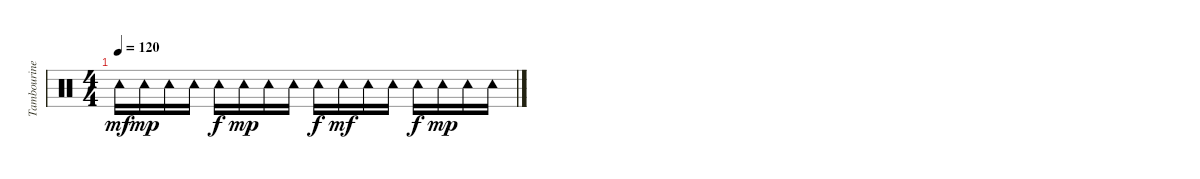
\track ("Tambourine Fills" "Tambourine") {instrument percussion}
\staff {score}
\articulation defaults
\ts (4 4)
\tempo 120
\clef neutral
\ks c "Tambourine (hit)".16{dy mf} "Tambourine (hit)".16{dy mp} "Tambourine (hit)".16 "Tambourine (hit)".16 "Tambourine (hit)".16{dy f} "Tambourine (hit)".16{dy mp} "Tambourine (hit)".16 "Tambourine (hit)".16 "Tambourine (hit)".16{dy f} "Tambourine (hit)".16{dy mf} "Tambourine (hit)".16 "Tambourine (hit)".16 "Tambourine (hit)".16{dy f} "Tambourine (hit)".16{dy mp} "Tambourine (hit)".16 "Tambourine (hit)".16
